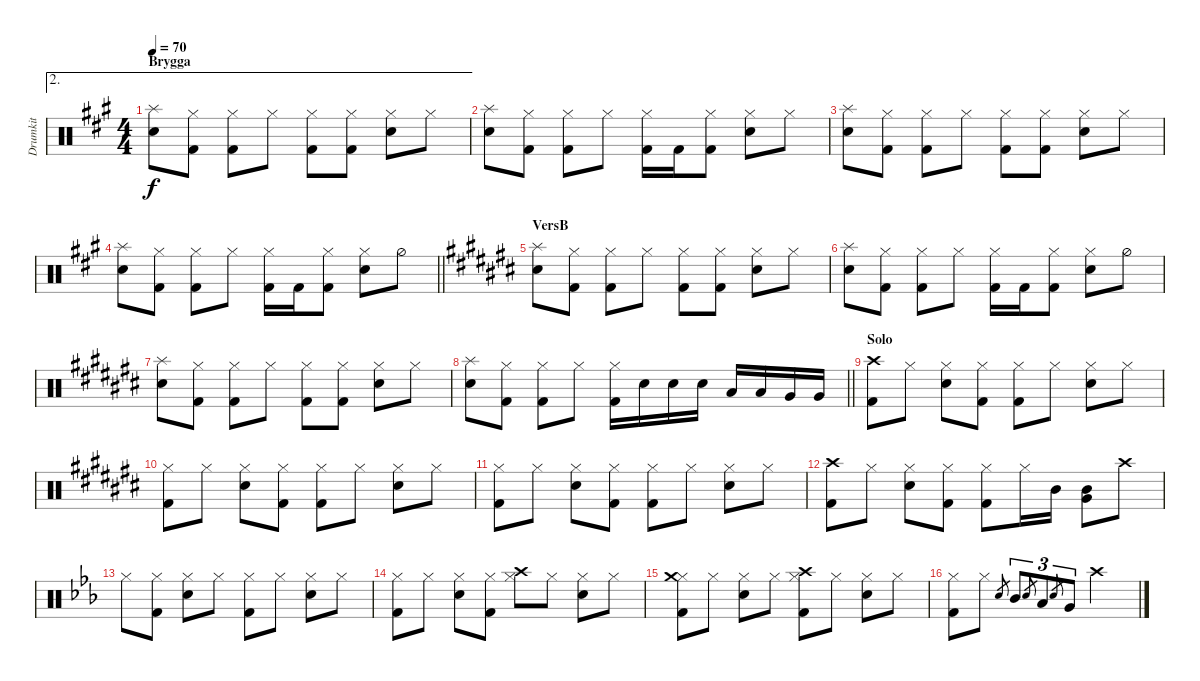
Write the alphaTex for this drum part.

\track ("Drumkit" "Drumkit") {instrument percussion}
\staff {score}
\articulation defaults
\ae 2
\ts (4 4)
\section ("" "Brygga")
\tempo 70
\clef neutral
\ks f#minor
("Splash (hit)" "Snare (hit) 2").8{dy f} ("Hi-Hat (closed)" "Kick (hit) 2").8 ("Hi-Hat (closed)" "Kick (hit) 2").8 "Hi-Hat (closed)".8 ("Hi-Hat (closed)" "Kick (hit) 2").8 ("Hi-Hat (closed)" "Kick (hit) 2").8 ("Hi-Hat (closed)" "Snare (hit) 2").8 "Hi-Hat (closed)".8 |
("Splash (hit)" "Snare (hit) 2").8 ("Hi-Hat (closed)" "Kick (hit) 2").8 ("Hi-Hat (closed)" "Kick (hit) 2").8 "Hi-Hat (closed)".8 ("Hi-Hat (closed)" "Kick (hit) 2").16 "Kick (hit) 2".16 ("Hi-Hat (closed)" "Kick (hit) 2").8 ("Snare (hit) 2" "Hi-Hat (closed)").8 "Hi-Hat (closed)".8 |
("Splash (hit)" "Snare (hit) 2").8 ("Hi-Hat (closed)" "Kick (hit) 2").8 ("Hi-Hat (closed)" "Kick (hit) 2").8 "Hi-Hat (closed)".8 ("Hi-Hat (closed)" "Kick (hit) 2").8 ("Hi-Hat (closed)" "Kick (hit) 2").8 ("Hi-Hat (closed)" "Snare (hit) 2").8 "Hi-Hat (closed)".8 |
\barLineRight lightlight
("Splash (hit)" "Snare (hit) 2").8 ("Hi-Hat (closed)" "Kick (hit) 2").8 ("Hi-Hat (closed)" "Kick (hit) 2").8 "Hi-Hat (closed)".8 ("Hi-Hat (closed)" "Kick (hit) 2").16 "Kick (hit) 2".16 ("Hi-Hat (closed)" "Kick (hit) 2").8 ("Snare (hit) 2" "Hi-Hat (closed)").8 "Hi-Hat (half)".8 |
\section ("" "VersB")
\ks a#minor
("Splash (hit)" "Snare (hit) 2").8 ("Hi-Hat (closed)" "Kick (hit) 2").8 ("Hi-Hat (closed)" "Kick (hit) 2").8 "Hi-Hat (closed)".8 ("Hi-Hat (closed)" "Kick (hit) 2").8 ("Hi-Hat (closed)" "Kick (hit) 2").8 ("Hi-Hat (closed)" "Snare (hit) 2").8 "Hi-Hat (closed)".8 |
("Splash (hit)" "Snare (hit) 2").8 ("Hi-Hat (closed)" "Kick (hit) 2").8 ("Hi-Hat (closed)" "Kick (hit) 2").8 "Hi-Hat (closed)".8 ("Hi-Hat (closed)" "Kick (hit) 2").16 "Kick (hit) 2".16 ("Hi-Hat (closed)" "Kick (hit) 2").8 ("Snare (hit) 2" "Hi-Hat (closed)").8 "Hi-Hat (half)".8 |
("Splash (hit)" "Snare (hit) 2").8 ("Hi-Hat (closed)" "Kick (hit) 2").8 ("Hi-Hat (closed)" "Kick (hit) 2").8 "Hi-Hat (closed)".8 ("Hi-Hat (closed)" "Kick (hit) 2").8 ("Hi-Hat (closed)" "Kick (hit) 2").8 ("Hi-Hat (closed)" "Snare (hit) 2").8 "Hi-Hat (closed)".8 |
\barLineRight lightlight
("Splash (hit)" "Snare (hit) 2").8 ("Hi-Hat (closed)" "Kick (hit) 2").8 ("Hi-Hat (closed)" "Kick (hit) 2").8 "Hi-Hat (closed)".8 ("Hi-Hat (closed)" "Kick (hit) 2").16 "Snare (hit) 2".16 "Snare (hit) 2".16 "Snare (hit) 2".16 "Low Tom (hit)".16 "Low Tom (hit)".16 "Very Low Tom (hit)".16 "Very Low Tom (hit)".16 |
\section ("" "Solo")
("Crash high (hit)" "Kick (hit) 2").8 "Hi-Hat (closed)".8 ("Snare (hit) 2" "Hi-Hat (closed)").8 ("Kick (hit) 2" "Hi-Hat (closed)").8 ("Kick (hit) 2" "Hi-Hat (closed)").8 "Hi-Hat (closed)".8 ("Snare (hit) 2" "Hi-Hat (closed)").8 "Hi-Hat (closed)".8 |
("Hi-Hat (closed)" "Kick (hit) 2").8 "Hi-Hat (closed)".8 ("Snare (hit) 2" "Hi-Hat (closed)").8 ("Kick (hit) 2" "Hi-Hat (closed)").8 ("Kick (hit) 2" "Hi-Hat (closed)").8 "Hi-Hat (closed)".8 ("Snare (hit) 2" "Hi-Hat (closed)").8 "Hi-Hat (closed)".8 |
("Hi-Hat (closed)" "Kick (hit) 2").8 "Hi-Hat (closed)".8 ("Snare (hit) 2" "Hi-Hat (closed)").8 ("Kick (hit) 2" "Hi-Hat (closed)").8 ("Kick (hit) 2" "Hi-Hat (closed)").8 "Hi-Hat (closed)".8 ("Snare (hit) 2" "Hi-Hat (closed)").8 "Hi-Hat (closed)".8 |
("Crash high (hit)" "Kick (hit) 2").8 "Hi-Hat (closed)".8 ("Snare (hit) 2" "Hi-Hat (closed)").8 ("Kick (hit) 2" "Hi-Hat (closed)").8 ("Kick (hit) 2" "Hi-Hat (closed)").8 "Hi-Hat (closed)".16 "Mid Tom (hit)".16 ("Mid Tom (hit)" "Very Low Tom (hit)").8 "Crash high (hit)".8 |
\ks cminor "Hi-Hat (closed)".8
("Hi-Hat (closed)" "Kick (hit) 2").8 ("Hi-Hat (closed)" "Snare (hit) 2").8 "Hi-Hat (closed)".8 ("Hi-Hat (closed)" "Kick (hit) 2").8 "Hi-Hat (closed)".8 ("Hi-Hat (closed)" "Snare (hit) 2").8 "Hi-Hat (closed)".8 |
("Hi-Hat (closed)" "Kick (hit) 2").8 "Hi-Hat (closed)".8 ("Hi-Hat (closed)" "Snare (hit) 2").8 ("Hi-Hat (closed)" "Kick (hit) 2").8 ("Crash high (hit)" "Hi-Hat (closed)").8 "Hi-Hat (closed)".8 ("Hi-Hat (closed)" "Snare (hit) 2").8 "Hi-Hat (closed)".8 |
("Hi-Hat (closed)" "Crash medium (hit)" "Kick (hit) 2").8 "Hi-Hat (closed)".8 ("Hi-Hat (closed)" "Snare (hit) 2").8 "Hi-Hat (closed)".8 ("Hi-Hat (closed)" "Crash high (hit)" "Kick (hit) 2").8 "Hi-Hat (closed)".8 ("Hi-Hat (closed)" "Snare (hit) 2").8 "Hi-Hat (closed)".8 |
("Hi-Hat (closed)" "Kick (hit) 2").8 "Hi-Hat (closed)".8 "Snare (hit)".8{gr} "Mid Tom (hit)".8{tu (3 2)} "Snare (hit)".8{gr} "Low Tom (hit)".8{tu (3 2)} "Snare (hit)".8{gr} "Very Low Tom (hit)".8{tu (3 2)} "Crash high (hit)".2
